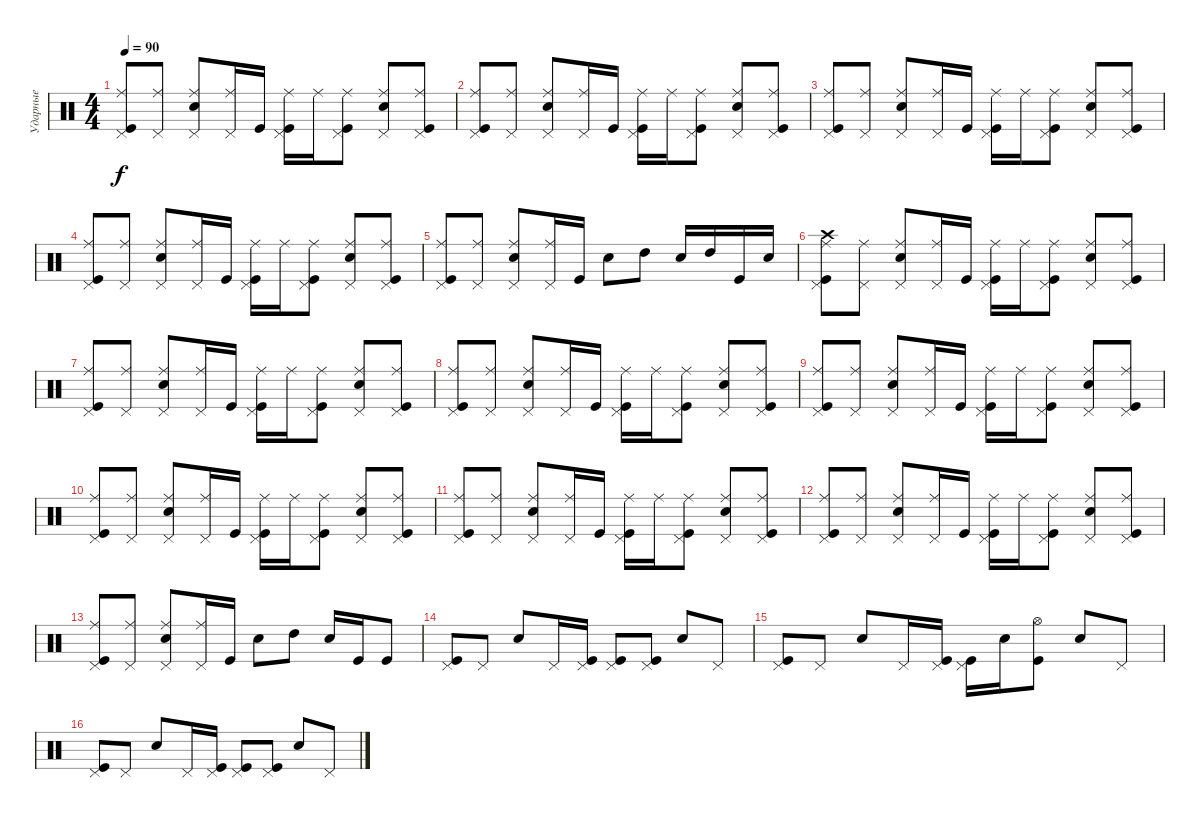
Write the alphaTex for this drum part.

\track ("Ударные" "Ударные") {instrument percussion}
\staff {score}
\articulation defaults
\ts (4 4)
\tempo 90
\clef neutral
\ks c
("Kick (hit)" "Pedal Hi-Hat (hit)" "Ride (middle)").8{dy f} ("Pedal Hi-Hat (hit)" "Ride (middle)").8 ("Electric Snare (hit)" "Pedal Hi-Hat (hit)" "Ride (middle)").8 ("Pedal Hi-Hat (hit)" "Ride (middle)").16 "Kick (hit)".16 ("Kick (hit)" "Pedal Hi-Hat (hit)" "Ride (middle)").16 "Ride (middle)".16 ("Kick (hit)" "Pedal Hi-Hat (hit)" "Ride (middle)").8 ("Electric Snare (hit)" "Pedal Hi-Hat (hit)" "Ride (middle)").8 ("Kick (hit)" "Pedal Hi-Hat (hit)" "Ride (middle)").8 |
("Kick (hit)" "Pedal Hi-Hat (hit)" "Ride (middle)").8 ("Pedal Hi-Hat (hit)" "Ride (middle)").8 ("Electric Snare (hit)" "Pedal Hi-Hat (hit)" "Ride (middle)").8 ("Pedal Hi-Hat (hit)" "Ride (middle)").16 "Kick (hit)".16 ("Kick (hit)" "Pedal Hi-Hat (hit)" "Ride (middle)").16 "Ride (middle)".16 ("Kick (hit)" "Pedal Hi-Hat (hit)" "Ride (middle)").8 ("Electric Snare (hit)" "Pedal Hi-Hat (hit)" "Ride (middle)").8 ("Kick (hit)" "Pedal Hi-Hat (hit)" "Ride (middle)").8 |
("Kick (hit)" "Pedal Hi-Hat (hit)" "Ride (middle)").8 ("Pedal Hi-Hat (hit)" "Ride (middle)").8 ("Electric Snare (hit)" "Pedal Hi-Hat (hit)" "Ride (middle)").8 ("Pedal Hi-Hat (hit)" "Ride (middle)").16 "Kick (hit)".16 ("Kick (hit)" "Pedal Hi-Hat (hit)" "Ride (middle)").16 "Ride (middle)".16 ("Kick (hit)" "Pedal Hi-Hat (hit)" "Ride (middle)").8 ("Electric Snare (hit)" "Pedal Hi-Hat (hit)" "Ride (middle)").8 ("Kick (hit)" "Pedal Hi-Hat (hit)" "Ride (middle)").8 |
("Kick (hit)" "Pedal Hi-Hat (hit)" "Ride (middle)").8 ("Pedal Hi-Hat (hit)" "Ride (middle)").8 ("Electric Snare (hit)" "Pedal Hi-Hat (hit)" "Ride (middle)").8 ("Pedal Hi-Hat (hit)" "Ride (middle)").16 "Kick (hit)".16 ("Kick (hit)" "Pedal Hi-Hat (hit)" "Ride (middle)").16 "Ride (middle)".16 ("Kick (hit)" "Pedal Hi-Hat (hit)" "Ride (middle)").8 ("Electric Snare (hit)" "Pedal Hi-Hat (hit)" "Ride (middle)").8 ("Kick (hit)" "Pedal Hi-Hat (hit)" "Ride (middle)").8 |
("Kick (hit)" "Pedal Hi-Hat (hit)" "Ride (middle)").8 ("Pedal Hi-Hat (hit)" "Ride (middle)").8 ("Electric Snare (hit)" "Pedal Hi-Hat (hit)" "Ride (middle)").8 ("Pedal Hi-Hat (hit)" "Ride (middle)").16 "Kick (hit)".16 "Electric Snare (hit)".8 "High Tom (hit)".8 "Electric Snare (hit)".16 "High Tom (hit)".16 "Kick (hit)".16 "Electric Snare (hit)".16 |
("Kick (hit)" "Crash high (hit)" "Pedal Hi-Hat (hit)" "Ride (middle)").8 ("Pedal Hi-Hat (hit)" "Ride (middle)").8 ("Electric Snare (hit)" "Pedal Hi-Hat (hit)" "Ride (middle)").8 ("Pedal Hi-Hat (hit)" "Ride (middle)").16 "Kick (hit)".16 ("Kick (hit)" "Pedal Hi-Hat (hit)" "Ride (middle)").16 "Ride (middle)".16 ("Kick (hit)" "Pedal Hi-Hat (hit)" "Ride (middle)").8 ("Electric Snare (hit)" "Pedal Hi-Hat (hit)" "Ride (middle)").8 ("Kick (hit)" "Pedal Hi-Hat (hit)" "Ride (middle)").8 |
("Kick (hit)" "Pedal Hi-Hat (hit)" "Ride (middle)").8 ("Pedal Hi-Hat (hit)" "Ride (middle)").8 ("Electric Snare (hit)" "Pedal Hi-Hat (hit)" "Ride (middle)").8 ("Pedal Hi-Hat (hit)" "Ride (middle)").16 "Kick (hit)".16 ("Kick (hit)" "Pedal Hi-Hat (hit)" "Ride (middle)").16 "Ride (middle)".16 ("Kick (hit)" "Pedal Hi-Hat (hit)" "Ride (middle)").8 ("Electric Snare (hit)" "Pedal Hi-Hat (hit)" "Ride (middle)").8 ("Kick (hit)" "Pedal Hi-Hat (hit)" "Ride (middle)").8 |
("Kick (hit)" "Pedal Hi-Hat (hit)" "Ride (middle)").8 ("Pedal Hi-Hat (hit)" "Ride (middle)").8 ("Electric Snare (hit)" "Pedal Hi-Hat (hit)" "Ride (middle)").8 ("Pedal Hi-Hat (hit)" "Ride (middle)").16 "Kick (hit)".16 ("Kick (hit)" "Pedal Hi-Hat (hit)" "Ride (middle)").16 "Ride (middle)".16 ("Kick (hit)" "Pedal Hi-Hat (hit)" "Ride (middle)").8 ("Electric Snare (hit)" "Pedal Hi-Hat (hit)" "Ride (middle)").8 ("Kick (hit)" "Pedal Hi-Hat (hit)" "Ride (middle)").8 |
("Kick (hit)" "Pedal Hi-Hat (hit)" "Ride (middle)").8 ("Pedal Hi-Hat (hit)" "Ride (middle)").8 ("Electric Snare (hit)" "Pedal Hi-Hat (hit)" "Ride (middle)").8 ("Pedal Hi-Hat (hit)" "Ride (middle)").16 "Kick (hit)".16 ("Kick (hit)" "Pedal Hi-Hat (hit)" "Ride (middle)").16 "Ride (middle)".16 ("Kick (hit)" "Pedal Hi-Hat (hit)" "Ride (middle)").8 ("Electric Snare (hit)" "Pedal Hi-Hat (hit)" "Ride (middle)").8 ("Kick (hit)" "Pedal Hi-Hat (hit)" "Ride (middle)").8 |
("Kick (hit)" "Pedal Hi-Hat (hit)" "Ride (middle)").8 ("Pedal Hi-Hat (hit)" "Ride (middle)").8 ("Electric Snare (hit)" "Pedal Hi-Hat (hit)" "Ride (middle)").8 ("Pedal Hi-Hat (hit)" "Ride (middle)").16 "Kick (hit)".16 ("Kick (hit)" "Pedal Hi-Hat (hit)" "Ride (middle)").16 "Ride (middle)".16 ("Kick (hit)" "Pedal Hi-Hat (hit)" "Ride (middle)").8 ("Electric Snare (hit)" "Pedal Hi-Hat (hit)" "Ride (middle)").8 ("Kick (hit)" "Pedal Hi-Hat (hit)" "Ride (middle)").8 |
("Kick (hit)" "Pedal Hi-Hat (hit)" "Ride (middle)").8 ("Pedal Hi-Hat (hit)" "Ride (middle)").8 ("Electric Snare (hit)" "Pedal Hi-Hat (hit)" "Ride (middle)").8 ("Pedal Hi-Hat (hit)" "Ride (middle)").16 "Kick (hit)".16 ("Kick (hit)" "Pedal Hi-Hat (hit)" "Ride (middle)").16 "Ride (middle)".16 ("Kick (hit)" "Pedal Hi-Hat (hit)" "Ride (middle)").8 ("Electric Snare (hit)" "Pedal Hi-Hat (hit)" "Ride (middle)").8 ("Kick (hit)" "Pedal Hi-Hat (hit)" "Ride (middle)").8 |
("Kick (hit)" "Pedal Hi-Hat (hit)" "Ride (middle)").8 ("Pedal Hi-Hat (hit)" "Ride (middle)").8 ("Electric Snare (hit)" "Pedal Hi-Hat (hit)" "Ride (middle)").8 ("Pedal Hi-Hat (hit)" "Ride (middle)").16 "Kick (hit)".16 ("Kick (hit)" "Pedal Hi-Hat (hit)" "Ride (middle)").16 "Ride (middle)".16 ("Kick (hit)" "Pedal Hi-Hat (hit)" "Ride (middle)").8 ("Electric Snare (hit)" "Pedal Hi-Hat (hit)" "Ride (middle)").8 ("Kick (hit)" "Pedal Hi-Hat (hit)" "Ride (middle)").8 |
("Kick (hit)" "Pedal Hi-Hat (hit)" "Ride (middle)").8 ("Pedal Hi-Hat (hit)" "Ride (middle)").8 ("Electric Snare (hit)" "Pedal Hi-Hat (hit)" "Ride (middle)").8 ("Pedal Hi-Hat (hit)" "Ride (middle)").16 "Kick (hit)".16 "Electric Snare (hit)".8 "High Tom (hit)".8 "Electric Snare (hit)".16 "Kick (hit)".16 "Kick (hit)".8 |
("Kick (hit)" "Pedal Hi-Hat (hit)").8 "Pedal Hi-Hat (hit)".8 "Electric Snare (hit)".8 "Pedal Hi-Hat (hit)".16 ("Kick (hit)" "Pedal Hi-Hat (hit)").16 ("Kick (hit)" "Pedal Hi-Hat (hit)").8 ("Kick (hit)" "Pedal Hi-Hat (hit)").8 "Electric Snare (hit)".8 "Pedal Hi-Hat (hit)".8 |
("Kick (hit)" "Pedal Hi-Hat (hit)").8 "Pedal Hi-Hat (hit)".8 "Electric Snare (hit)".8 "Pedal Hi-Hat (hit)".16 ("Kick (hit)" "Pedal Hi-Hat (hit)").16 ("Kick (hit)" "Pedal Hi-Hat (hit)").16 "Electric Snare (hit)".16 ("Kick (hit)" "Hi-Hat (open)").8 "Electric Snare (hit)".8 "Pedal Hi-Hat (hit)".8 |
("Kick (hit)" "Pedal Hi-Hat (hit)").8 "Pedal Hi-Hat (hit)".8 "Electric Snare (hit)".8 "Pedal Hi-Hat (hit)".16 ("Kick (hit)" "Pedal Hi-Hat (hit)").16 ("Kick (hit)" "Pedal Hi-Hat (hit)").8 ("Kick (hit)" "Pedal Hi-Hat (hit)").8 "Electric Snare (hit)".8 "Pedal Hi-Hat (hit)".8
